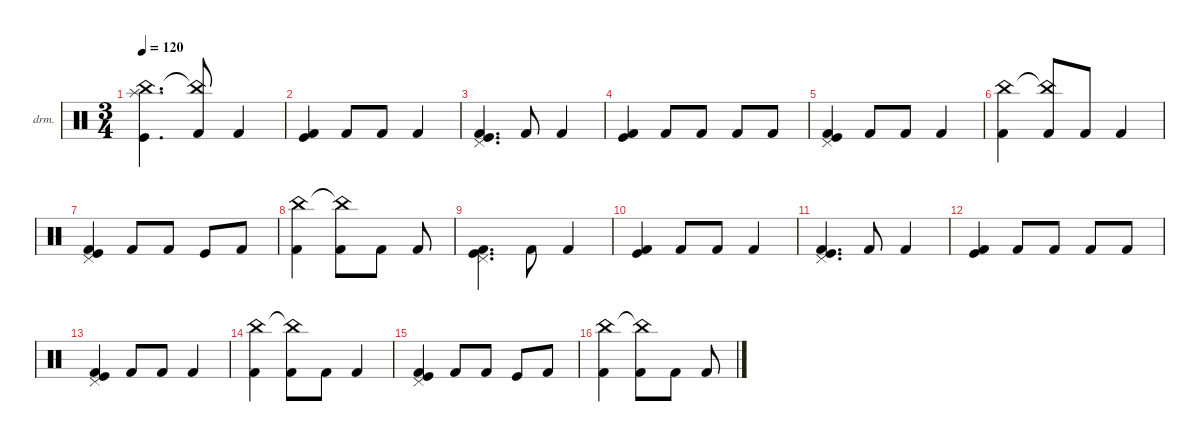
\defaultSystemsLayout 4
\hideDynamics
\bracketExtendMode nobrackets
\firstSystemTrackNameOrientation horizontal
\otherSystemsTrackNameOrientation horizontal
\track ("Drumkit" "drm.") {instrument percussion}
\staff {score}
\articulation defaults
\ts (3 4)
\tempo 120
\clef neutral
\ks c
("Splash (hit)" "China (hit)" "Kick (hit)").4{d dy mf beam Down} ("Kick (hit) 2" "China (hit)"{t}).8{beam Up} "Kick (hit) 2".4{beam Up} |
("Kick (hit)" "Kick (hit) 2").4{beam Up} "Kick (hit) 2".8{beam Up} "Kick (hit) 2".8{beam Up} "Kick (hit) 2".4{beam Up} |
("Kick (hit)" "Kick (hit) 2" "Pedal Hi-Hat (hit)").4{d beam Up} "Kick (hit) 2".8{beam Up} "Kick (hit) 2".4{beam Up} |
("Kick (hit) 2" "Kick (hit)").4{beam Up} "Kick (hit) 2".8{beam Up} "Kick (hit) 2".8{beam Up} "Kick (hit) 2".8{beam Up} "Kick (hit) 2".8{beam Up} |
("Kick (hit) 2" "Pedal Hi-Hat (hit)" "Kick (hit)").4{beam Up} "Kick (hit) 2".8{beam Up} "Kick (hit) 2".8{beam Up} "Kick (hit) 2".4{beam Up} |
("Kick (hit) 2" "China (hit)").4{beam Down} ("Kick (hit) 2" "China (hit)"{t}).8{beam Up} "Kick (hit) 2".8{beam Up} "Kick (hit) 2".4{beam Up} |
("Kick (hit) 2" "Kick (hit)" "Pedal Hi-Hat (hit)").4{beam Up} "Kick (hit) 2".8{beam Up} "Kick (hit) 2".8{beam Up} "Kick (hit)".8{beam Up} "Kick (hit) 2".8{beam Up} |
("Kick (hit) 2" "China (hit)").4{beam Down} ("Kick (hit) 2" "China (hit)"{t}).8{beam Down} "Kick (hit) 2".8{beam Down} "Kick (hit) 2".8{beam Up} |
("Kick (hit)" "Kick (hit) 2" "Pedal Hi-Hat (hit)").4{d beam Down} "Kick (hit) 2".8{beam Down} "Kick (hit) 2".4{beam Up} |
("Kick (hit)" "Kick (hit) 2").4{beam Up} "Kick (hit) 2".8{beam Up} "Kick (hit) 2".8{beam Up} "Kick (hit) 2".4{beam Up} |
("Kick (hit)" "Kick (hit) 2" "Pedal Hi-Hat (hit)").4{d beam Up} "Kick (hit) 2".8{beam Up} "Kick (hit) 2".4{beam Up} |
("Kick (hit) 2" "Kick (hit)").4{beam Up} "Kick (hit) 2".8{beam Up} "Kick (hit) 2".8{beam Up} "Kick (hit) 2".8{beam Up} "Kick (hit) 2".8{beam Up} |
("Kick (hit) 2" "Pedal Hi-Hat (hit)" "Kick (hit)").4{beam Up} "Kick (hit) 2".8{beam Up} "Kick (hit) 2".8{beam Up} "Kick (hit) 2".4{beam Up} |
("Kick (hit) 2" "China (hit)").4{beam Down} ("Kick (hit) 2" "China (hit)"{t}).8{beam Down} "Kick (hit) 2".8{beam Down} "Kick (hit) 2".4{beam Up} |
("Kick (hit) 2" "Kick (hit)" "Pedal Hi-Hat (hit)").4{beam Up} "Kick (hit) 2".8{beam Up} "Kick (hit) 2".8{beam Up} "Kick (hit)".8{beam Up} "Kick (hit) 2".8{beam Up} |
("Kick (hit) 2" "China (hit)").4{beam Down} ("Kick (hit) 2" "China (hit)"{t}).8{beam Down} "Kick (hit) 2".8{beam Down} "Kick (hit) 2".8{beam Up}
